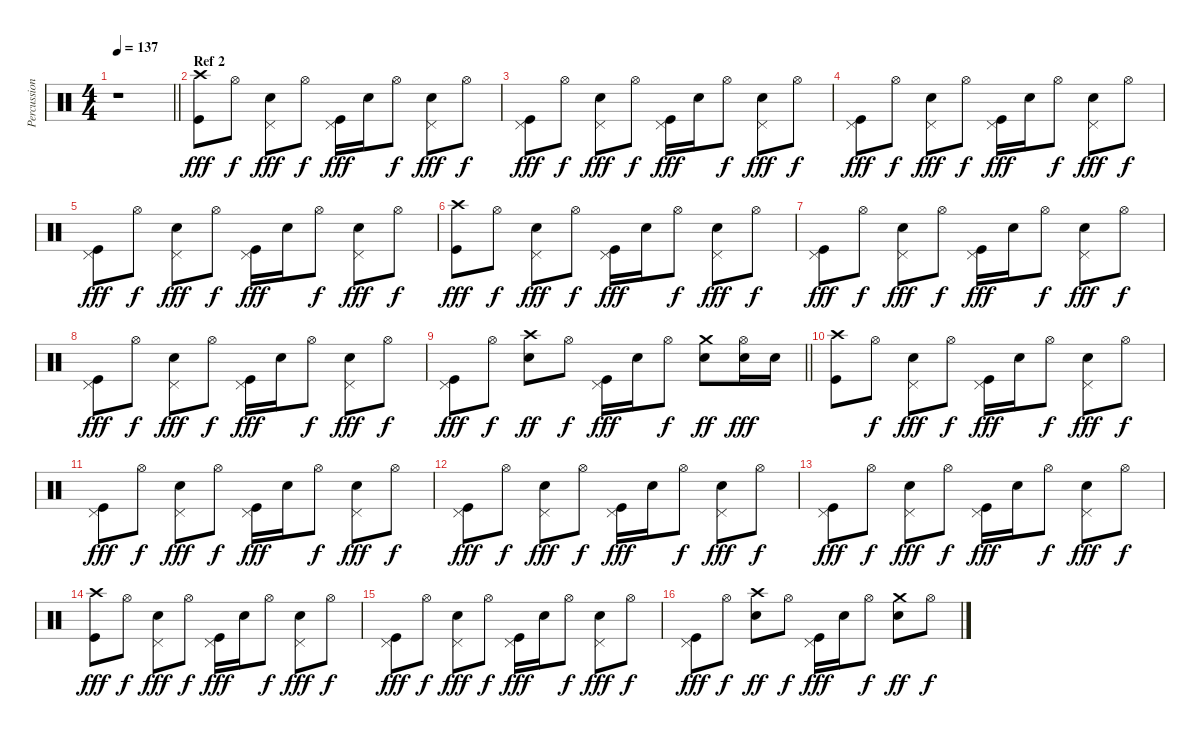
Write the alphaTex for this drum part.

\track ("Percussions" "Percussion") {instrument percussion}
\staff {score}
\articulation defaults
\ts (4 4)
\section ("" "")
\tempo 137
\clef neutral
\barLineRight lightlight
\ks c
r.1{dy fff} |
\section ("" "Ref 2")
("Kick (hit)" "Crash high (hit)").8 "Hi-Hat (open)".8{dy f} ("Electric Snare (hit)" "Pedal Hi-Hat (hit)").8{dy fff} "Hi-Hat (open)".8{dy f} ("Kick (hit)" "Pedal Hi-Hat (hit)").16{dy fff} "Electric Snare (hit)".16 "Hi-Hat (open)".8{dy f} ("Electric Snare (hit)" "Pedal Hi-Hat (hit)").8{dy fff} "Hi-Hat (open)".8{dy f} |
("Kick (hit)" "Pedal Hi-Hat (hit)").8{dy fff} "Hi-Hat (open)".8{dy f} ("Electric Snare (hit)" "Pedal Hi-Hat (hit)").8{dy fff} "Hi-Hat (open)".8{dy f} ("Kick (hit)" "Pedal Hi-Hat (hit)").16{dy fff} "Electric Snare (hit)".16 "Hi-Hat (open)".8{dy f} ("Electric Snare (hit)" "Pedal Hi-Hat (hit)").8{dy fff} "Hi-Hat (open)".8{dy f} |
("Kick (hit)" "Pedal Hi-Hat (hit)").8{dy fff} "Hi-Hat (open)".8{dy f} ("Electric Snare (hit)" "Pedal Hi-Hat (hit)").8{dy fff} "Hi-Hat (open)".8{dy f} ("Kick (hit)" "Pedal Hi-Hat (hit)").16{dy fff} "Electric Snare (hit)".16 "Hi-Hat (open)".8{dy f} ("Electric Snare (hit)" "Pedal Hi-Hat (hit)").8{dy fff} "Hi-Hat (open)".8{dy f} |
("Kick (hit)" "Pedal Hi-Hat (hit)").8{dy fff} "Hi-Hat (open)".8{dy f} ("Electric Snare (hit)" "Pedal Hi-Hat (hit)").8{dy fff} "Hi-Hat (open)".8{dy f} ("Kick (hit)" "Pedal Hi-Hat (hit)").16{dy fff} "Electric Snare (hit)".16 "Hi-Hat (open)".8{dy f} ("Electric Snare (hit)" "Pedal Hi-Hat (hit)").8{dy fff} "Hi-Hat (open)".8{dy f} |
("Kick (hit)" "Crash high (hit)").8{dy fff} "Hi-Hat (open)".8{dy f} ("Electric Snare (hit)" "Pedal Hi-Hat (hit)").8{dy fff} "Hi-Hat (open)".8{dy f} ("Kick (hit)" "Pedal Hi-Hat (hit)").16{dy fff} "Electric Snare (hit)".16 "Hi-Hat (open)".8{dy f} ("Electric Snare (hit)" "Pedal Hi-Hat (hit)").8{dy fff} "Hi-Hat (open)".8{dy f} |
("Kick (hit)" "Pedal Hi-Hat (hit)").8{dy fff} "Hi-Hat (open)".8{dy f} ("Electric Snare (hit)" "Pedal Hi-Hat (hit)").8{dy fff} "Hi-Hat (open)".8{dy f} ("Kick (hit)" "Pedal Hi-Hat (hit)").16{dy fff} "Electric Snare (hit)".16 "Hi-Hat (open)".8{dy f} ("Electric Snare (hit)" "Pedal Hi-Hat (hit)").8{dy fff} "Hi-Hat (open)".8{dy f} |
("Kick (hit)" "Pedal Hi-Hat (hit)").8{dy fff} "Hi-Hat (open)".8{dy f} ("Electric Snare (hit)" "Pedal Hi-Hat (hit)").8{dy fff} "Hi-Hat (open)".8{dy f} ("Kick (hit)" "Pedal Hi-Hat (hit)").16{dy fff} "Electric Snare (hit)".16 "Hi-Hat (open)".8{dy f} ("Electric Snare (hit)" "Pedal Hi-Hat (hit)").8{dy fff} "Hi-Hat (open)".8{dy f} |
\barLineRight lightlight
("Kick (hit)" "Pedal Hi-Hat (hit)").8{dy fff} "Hi-Hat (open)".8{dy f} ("Electric Snare (hit)" "Crash high (hit)").8{dy ff} "Hi-Hat (open)".8{dy f} ("Kick (hit)" "Pedal Hi-Hat (hit)").16{dy fff} "Electric Snare (hit)".16 "Hi-Hat (open)".8{dy f} ("Electric Snare (hit)" "Crash medium (hit)").8{dy ff} ("Electric Snare (hit)" "Hi-Hat (open)").16{dy fff} "Electric Snare (hit)".16 |
("Kick (hit)" "Crash high (hit)").8 "Hi-Hat (open)".8{dy f} ("Electric Snare (hit)" "Pedal Hi-Hat (hit)").8{dy fff} "Hi-Hat (open)".8{dy f} ("Kick (hit)" "Pedal Hi-Hat (hit)").16{dy fff} "Electric Snare (hit)".16 "Hi-Hat (open)".8{dy f} ("Electric Snare (hit)" "Pedal Hi-Hat (hit)").8{dy fff} "Hi-Hat (open)".8{dy f} |
("Kick (hit)" "Pedal Hi-Hat (hit)").8{dy fff} "Hi-Hat (open)".8{dy f} ("Electric Snare (hit)" "Pedal Hi-Hat (hit)").8{dy fff} "Hi-Hat (open)".8{dy f} ("Kick (hit)" "Pedal Hi-Hat (hit)").16{dy fff} "Electric Snare (hit)".16 "Hi-Hat (open)".8{dy f} ("Electric Snare (hit)" "Pedal Hi-Hat (hit)").8{dy fff} "Hi-Hat (open)".8{dy f} |
("Kick (hit)" "Pedal Hi-Hat (hit)").8{dy fff} "Hi-Hat (open)".8{dy f} ("Electric Snare (hit)" "Pedal Hi-Hat (hit)").8{dy fff} "Hi-Hat (open)".8{dy f} ("Kick (hit)" "Pedal Hi-Hat (hit)").16{dy fff} "Electric Snare (hit)".16 "Hi-Hat (open)".8{dy f} ("Electric Snare (hit)" "Pedal Hi-Hat (hit)").8{dy fff} "Hi-Hat (open)".8{dy f} |
("Kick (hit)" "Pedal Hi-Hat (hit)").8{dy fff} "Hi-Hat (open)".8{dy f} ("Electric Snare (hit)" "Pedal Hi-Hat (hit)").8{dy fff} "Hi-Hat (open)".8{dy f} ("Kick (hit)" "Pedal Hi-Hat (hit)").16{dy fff} "Electric Snare (hit)".16 "Hi-Hat (open)".8{dy f} ("Electric Snare (hit)" "Pedal Hi-Hat (hit)").8{dy fff} "Hi-Hat (open)".8{dy f} |
("Kick (hit)" "Crash high (hit)").8{dy fff} "Hi-Hat (open)".8{dy f} ("Electric Snare (hit)" "Pedal Hi-Hat (hit)").8{dy fff} "Hi-Hat (open)".8{dy f} ("Kick (hit)" "Pedal Hi-Hat (hit)").16{dy fff} "Electric Snare (hit)".16 "Hi-Hat (open)".8{dy f} ("Electric Snare (hit)" "Pedal Hi-Hat (hit)").8{dy fff} "Hi-Hat (open)".8{dy f} |
("Kick (hit)" "Pedal Hi-Hat (hit)").8{dy fff} "Hi-Hat (open)".8{dy f} ("Electric Snare (hit)" "Pedal Hi-Hat (hit)").8{dy fff} "Hi-Hat (open)".8{dy f} ("Kick (hit)" "Pedal Hi-Hat (hit)").16{dy fff} "Electric Snare (hit)".16 "Hi-Hat (open)".8{dy f} ("Electric Snare (hit)" "Pedal Hi-Hat (hit)").8{dy fff} "Hi-Hat (open)".8{dy f} |
("Kick (hit)" "Pedal Hi-Hat (hit)").8{dy fff} "Hi-Hat (open)".8{dy f} ("Electric Snare (hit)" "Crash high (hit)").8{dy ff} "Hi-Hat (open)".8{dy f} ("Kick (hit)" "Pedal Hi-Hat (hit)").16{dy fff} "Electric Snare (hit)".16 "Hi-Hat (open)".8{dy f} ("Electric Snare (hit)" "Crash medium (hit)").8{dy ff} "Hi-Hat (open)".8{dy f}
